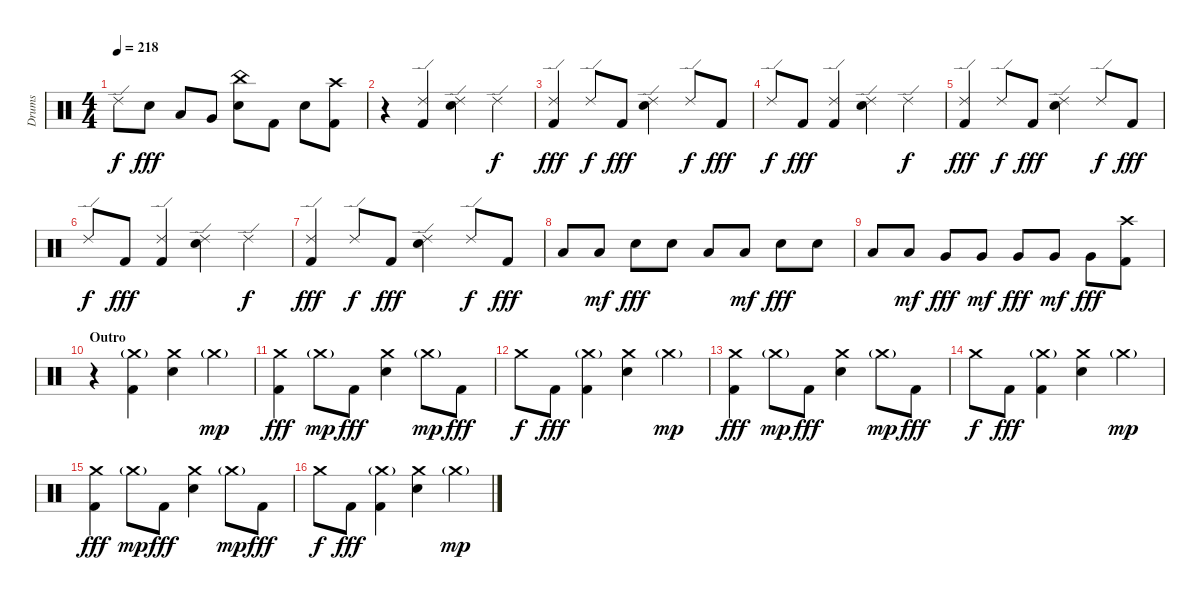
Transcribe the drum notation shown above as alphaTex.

\track ("Drums" "Drums") {instrument percussion}
\staff {score}
\articulation defaults
\ts (4 4)
\tempo 218
\clef neutral
\ks c "Ride (edge) 2".8{dy f} "Electric Snare (hit)".8{dy fff} "Low Tom (hit)".8 "Very Low Tom (hit)".8
("China (hit)" "Electric Snare (hit)").8 "Kick (hit) 2".8 "Electric Snare (hit)".8 ("Crash high (hit)" "Kick (hit) 2").8 |
r.4 ("Ride (edge) 2" "Kick (hit) 2").4 ("Ride (edge) 2" "Electric Snare (hit)").4 "Ride (edge) 2".4{dy f} |
("Ride (edge) 2" "Kick (hit) 2").4{dy fff} "Ride (edge) 2".8{dy f} "Kick (hit) 2".8{dy fff} ("Ride (edge) 2" "Electric Snare (hit)").4 "Ride (edge) 2".8{dy f} "Kick (hit) 2".8{dy fff} |
"Ride (edge) 2".8{dy f} "Kick (hit) 2".8{dy fff} ("Ride (edge) 2" "Kick (hit) 2").4 ("Ride (edge) 2" "Electric Snare (hit)").4 "Ride (edge) 2".4{dy f} |
("Ride (edge) 2" "Kick (hit) 2").4{dy fff} "Ride (edge) 2".8{dy f} "Kick (hit) 2".8{dy fff} ("Ride (edge) 2" "Electric Snare (hit)").4 "Ride (edge) 2".8{dy f} "Kick (hit) 2".8{dy fff} |
"Ride (edge) 2".8{dy f} "Kick (hit) 2".8{dy fff} ("Ride (edge) 2" "Kick (hit) 2").4 ("Ride (edge) 2" "Electric Snare (hit)").4 "Ride (edge) 2".4{dy f} |
("Ride (edge) 2" "Kick (hit) 2").4{dy fff} "Ride (edge) 2".8{dy f} "Kick (hit) 2".8{dy fff} ("Ride (edge) 2" "Electric Snare (hit)").4 "Ride (edge) 2".8{dy f} "Kick (hit) 2".8{dy fff} |
"Low Tom (hit)".8 "Low Tom (hit)".8{dy mf} "Electric Snare (hit)".8{dy fff} "Electric Snare (hit)".8 "Low Tom (hit)".8 "Low Tom (hit)".8{dy mf} "Electric Snare (hit)".8{dy fff} "Electric Snare (hit)".8 |
"Low Tom (hit)".8 "Low Tom (hit)".8{dy mf} "Very Low Tom (hit)".8{dy fff} "Very Low Tom (hit)".8{dy mf} "Very Low Tom (hit)".8{dy fff} "Very Low Tom (hit)".8{dy mf} "Very Low Tom (hit)".8{dy fff} ("Crash high (hit)" "Kick (hit) 2").8 |
\section ("" "Outro")
r.4 ("Crash medium (hit)"{g} "Kick (hit) 2").4 ("Crash medium (hit)" "Electric Snare (hit)").4 "Crash medium (hit)"{g}.4{dy mp} |
("Crash medium (hit)" "Kick (hit) 2").4{dy fff} "Crash medium (hit)"{g}.8{dy mp} "Kick (hit) 2".8{dy fff} ("Crash medium (hit)" "Electric Snare (hit)").4 "Crash medium (hit)"{g}.8{dy mp} "Kick (hit) 2".8{dy fff} |
"Crash medium (hit)".8{dy f} "Kick (hit) 2".8{dy fff} ("Crash medium (hit)"{g} "Kick (hit) 2").4 ("Crash medium (hit)" "Electric Snare (hit)").4 "Crash medium (hit)"{g}.4{dy mp} |
("Crash medium (hit)" "Kick (hit) 2").4{dy fff} "Crash medium (hit)"{g}.8{dy mp} "Kick (hit) 2".8{dy fff} ("Crash medium (hit)" "Electric Snare (hit)").4 "Crash medium (hit)"{g}.8{dy mp} "Kick (hit) 2".8{dy fff} |
"Crash medium (hit)".8{dy f} "Kick (hit) 2".8{dy fff} ("Crash medium (hit)"{g} "Kick (hit) 2").4 ("Crash medium (hit)" "Electric Snare (hit)").4 "Crash medium (hit)"{g}.4{dy mp} |
("Crash medium (hit)" "Kick (hit) 2").4{dy fff} "Crash medium (hit)"{g}.8{dy mp} "Kick (hit) 2".8{dy fff} ("Crash medium (hit)" "Electric Snare (hit)").4 "Crash medium (hit)"{g}.8{dy mp} "Kick (hit) 2".8{dy fff} |
"Crash medium (hit)".8{dy f} "Kick (hit) 2".8{dy fff} ("Crash medium (hit)"{g} "Kick (hit) 2").4 ("Crash medium (hit)" "Electric Snare (hit)").4 "Crash medium (hit)"{g}.4{dy mp}
